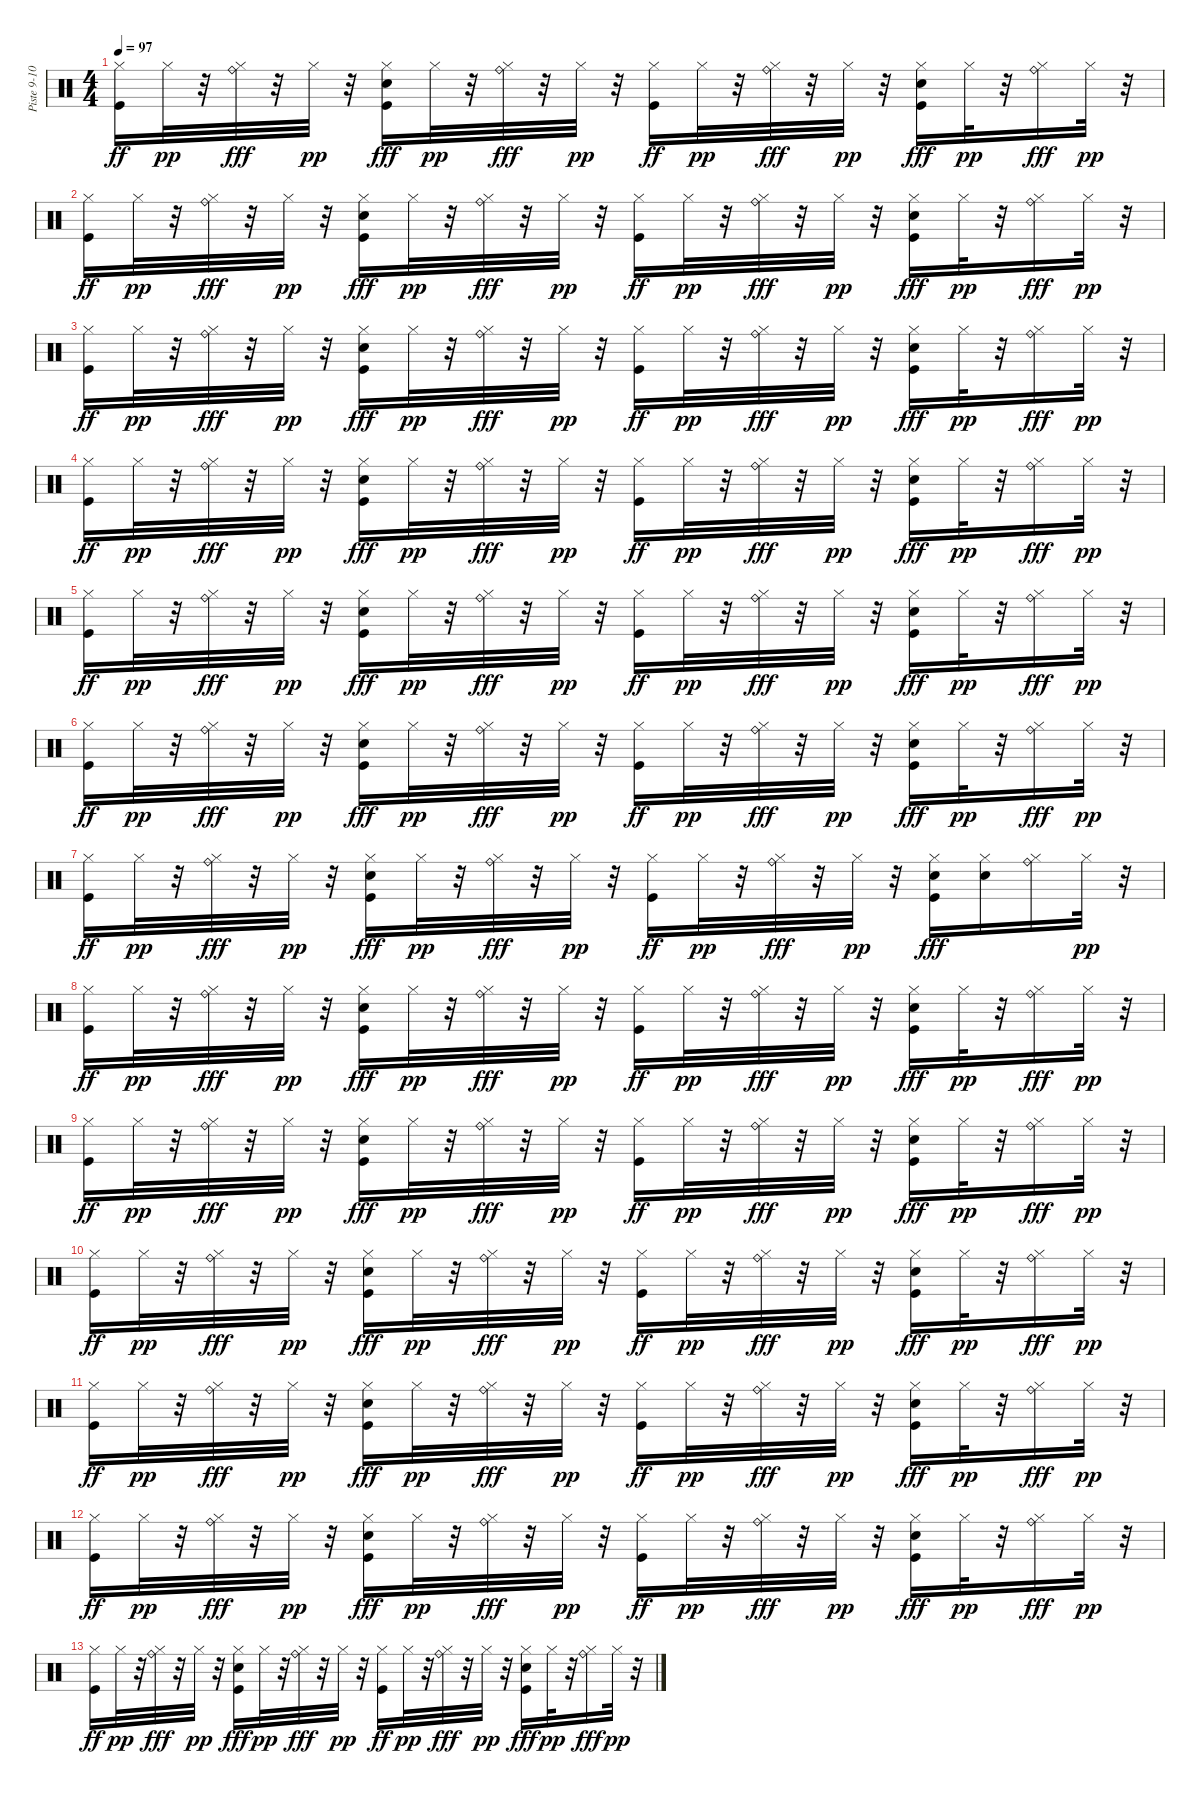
\track ("Piste 9-10-11-12-13-14" "Piste 9-10") {instrument percussion}
\staff {score}
\articulation defaults
\ts (4 4)
\tempo 97
\clef neutral
\ks c
("Hi-Hat (closed)" "Kick (hit)").16{dy ff} "Hi-Hat (closed)".32{dy pp} r.32 ("Hi-Hat (closed)" "Ride (bell)").32{dy fff} r.32 "Hi-Hat (closed)".32{dy pp} r.32 ("Hi-Hat (closed)" "Snare (hit) 2" "Kick (hit)").16{dy fff} "Hi-Hat (closed)".32{dy pp} r.32 ("Hi-Hat (closed)" "Ride (bell)").32{dy fff} r.32 "Hi-Hat (closed)".32{dy pp} r.32 ("Hi-Hat (closed)" "Kick (hit)").16{dy ff} "Hi-Hat (closed)".32{dy pp} r.32 ("Hi-Hat (closed)" "Ride (bell)").32{dy fff} r.32 "Hi-Hat (closed)".32{dy pp} r.32 ("Hi-Hat (closed)" "Snare (hit) 2" "Kick (hit)").16{dy fff} "Hi-Hat (closed)".32{dy pp} r.32 ("Hi-Hat (closed)" "Ride (bell)").16{dy fff} "Hi-Hat (closed)".32{dy pp} r.32 |
("Hi-Hat (closed)" "Kick (hit)").16{dy ff} "Hi-Hat (closed)".32{dy pp} r.32 ("Hi-Hat (closed)" "Ride (bell)").32{dy fff} r.32 "Hi-Hat (closed)".32{dy pp} r.32 ("Hi-Hat (closed)" "Snare (hit) 2" "Kick (hit)").16{dy fff} "Hi-Hat (closed)".32{dy pp} r.32 ("Hi-Hat (closed)" "Ride (bell)").32{dy fff} r.32 "Hi-Hat (closed)".32{dy pp} r.32 ("Hi-Hat (closed)" "Kick (hit)").16{dy ff} "Hi-Hat (closed)".32{dy pp} r.32 ("Hi-Hat (closed)" "Ride (bell)").32{dy fff} r.32 "Hi-Hat (closed)".32{dy pp} r.32 ("Hi-Hat (closed)" "Snare (hit) 2" "Kick (hit)").16{dy fff} "Hi-Hat (closed)".32{dy pp} r.32 ("Hi-Hat (closed)" "Ride (bell)").16{dy fff} "Hi-Hat (closed)".32{dy pp} r.32 |
("Hi-Hat (closed)" "Kick (hit)").16{dy ff} "Hi-Hat (closed)".32{dy pp} r.32 ("Hi-Hat (closed)" "Ride (bell)").32{dy fff} r.32 "Hi-Hat (closed)".32{dy pp} r.32 ("Hi-Hat (closed)" "Snare (hit) 2" "Kick (hit)").16{dy fff} "Hi-Hat (closed)".32{dy pp} r.32 ("Hi-Hat (closed)" "Ride (bell)").32{dy fff} r.32 "Hi-Hat (closed)".32{dy pp} r.32 ("Hi-Hat (closed)" "Kick (hit)").16{dy ff} "Hi-Hat (closed)".32{dy pp} r.32 ("Hi-Hat (closed)" "Ride (bell)").32{dy fff} r.32 "Hi-Hat (closed)".32{dy pp} r.32 ("Hi-Hat (closed)" "Snare (hit) 2" "Kick (hit)").16{dy fff} "Hi-Hat (closed)".32{dy pp} r.32 ("Hi-Hat (closed)" "Ride (bell)").16{dy fff} "Hi-Hat (closed)".32{dy pp} r.32 |
("Hi-Hat (closed)" "Kick (hit)").16{dy ff} "Hi-Hat (closed)".32{dy pp} r.32 ("Hi-Hat (closed)" "Ride (bell)").32{dy fff} r.32 "Hi-Hat (closed)".32{dy pp} r.32 ("Hi-Hat (closed)" "Snare (hit) 2" "Kick (hit)").16{dy fff} "Hi-Hat (closed)".32{dy pp} r.32 ("Hi-Hat (closed)" "Ride (bell)").32{dy fff} r.32 "Hi-Hat (closed)".32{dy pp} r.32 ("Hi-Hat (closed)" "Kick (hit)").16{dy ff} "Hi-Hat (closed)".32{dy pp} r.32 ("Hi-Hat (closed)" "Ride (bell)").32{dy fff} r.32 "Hi-Hat (closed)".32{dy pp} r.32 ("Hi-Hat (closed)" "Snare (hit) 2" "Kick (hit)").16{dy fff} "Hi-Hat (closed)".32{dy pp} r.32 ("Hi-Hat (closed)" "Ride (bell)").16{dy fff} "Hi-Hat (closed)".32{dy pp} r.32 |
("Hi-Hat (closed)" "Kick (hit)").16{dy ff} "Hi-Hat (closed)".32{dy pp} r.32 ("Hi-Hat (closed)" "Ride (bell)").32{dy fff} r.32 "Hi-Hat (closed)".32{dy pp} r.32 ("Hi-Hat (closed)" "Snare (hit) 2" "Kick (hit)").16{dy fff} "Hi-Hat (closed)".32{dy pp} r.32 ("Hi-Hat (closed)" "Ride (bell)").32{dy fff} r.32 "Hi-Hat (closed)".32{dy pp} r.32 ("Hi-Hat (closed)" "Kick (hit)").16{dy ff} "Hi-Hat (closed)".32{dy pp} r.32 ("Hi-Hat (closed)" "Ride (bell)").32{dy fff} r.32 "Hi-Hat (closed)".32{dy pp} r.32 ("Hi-Hat (closed)" "Snare (hit) 2" "Kick (hit)").16{dy fff} "Hi-Hat (closed)".32{dy pp} r.32 ("Hi-Hat (closed)" "Ride (bell)").16{dy fff} "Hi-Hat (closed)".32{dy pp} r.32 |
("Hi-Hat (closed)" "Kick (hit)").16{dy ff} "Hi-Hat (closed)".32{dy pp} r.32 ("Hi-Hat (closed)" "Ride (bell)").32{dy fff} r.32 "Hi-Hat (closed)".32{dy pp} r.32 ("Hi-Hat (closed)" "Snare (hit) 2" "Kick (hit)").16{dy fff} "Hi-Hat (closed)".32{dy pp} r.32 ("Hi-Hat (closed)" "Ride (bell)").32{dy fff} r.32 "Hi-Hat (closed)".32{dy pp} r.32 ("Hi-Hat (closed)" "Kick (hit)").16{dy ff} "Hi-Hat (closed)".32{dy pp} r.32 ("Hi-Hat (closed)" "Ride (bell)").32{dy fff} r.32 "Hi-Hat (closed)".32{dy pp} r.32 ("Hi-Hat (closed)" "Snare (hit) 2" "Kick (hit)").16{dy fff} "Hi-Hat (closed)".32{dy pp} r.32 ("Hi-Hat (closed)" "Ride (bell)").16{dy fff} "Hi-Hat (closed)".32{dy pp} r.32 |
("Hi-Hat (closed)" "Kick (hit)").16{dy ff} "Hi-Hat (closed)".32{dy pp} r.32 ("Hi-Hat (closed)" "Ride (bell)").32{dy fff} r.32 "Hi-Hat (closed)".32{dy pp} r.32 ("Hi-Hat (closed)" "Snare (hit) 2" "Kick (hit)").16{dy fff} "Hi-Hat (closed)".32{dy pp} r.32 ("Hi-Hat (closed)" "Ride (bell)").32{dy fff} r.32 "Hi-Hat (closed)".32{dy pp} r.32 ("Hi-Hat (closed)" "Kick (hit)").16{dy ff} "Hi-Hat (closed)".32{dy pp} r.32 ("Hi-Hat (closed)" "Ride (bell)").32{dy fff} r.32 "Hi-Hat (closed)".32{dy pp} r.32 ("Hi-Hat (closed)" "Snare (hit) 2" "Kick (hit)").16{dy fff} ("Hi-Hat (closed)" "Snare (hit) 2").16 ("Hi-Hat (closed)" "Ride (bell)").16 "Hi-Hat (closed)".32{dy pp} r.32 |
("Hi-Hat (closed)" "Kick (hit)").16{dy ff} "Hi-Hat (closed)".32{dy pp} r.32 ("Hi-Hat (closed)" "Ride (bell)").32{dy fff} r.32 "Hi-Hat (closed)".32{dy pp} r.32 ("Hi-Hat (closed)" "Snare (hit) 2" "Kick (hit)").16{dy fff} "Hi-Hat (closed)".32{dy pp} r.32 ("Hi-Hat (closed)" "Ride (bell)").32{dy fff} r.32 "Hi-Hat (closed)".32{dy pp} r.32 ("Hi-Hat (closed)" "Kick (hit)").16{dy ff} "Hi-Hat (closed)".32{dy pp} r.32 ("Hi-Hat (closed)" "Ride (bell)").32{dy fff} r.32 "Hi-Hat (closed)".32{dy pp} r.32 ("Hi-Hat (closed)" "Snare (hit) 2" "Kick (hit)").16{dy fff} "Hi-Hat (closed)".32{dy pp} r.32 ("Hi-Hat (closed)" "Ride (bell)").16{dy fff} "Hi-Hat (closed)".32{dy pp} r.32 |
("Hi-Hat (closed)" "Kick (hit)").16{dy ff} "Hi-Hat (closed)".32{dy pp} r.32 ("Hi-Hat (closed)" "Ride (bell)").32{dy fff} r.32 "Hi-Hat (closed)".32{dy pp} r.32 ("Hi-Hat (closed)" "Snare (hit) 2" "Kick (hit)").16{dy fff} "Hi-Hat (closed)".32{dy pp} r.32 ("Hi-Hat (closed)" "Ride (bell)").32{dy fff} r.32 "Hi-Hat (closed)".32{dy pp} r.32 ("Hi-Hat (closed)" "Kick (hit)").16{dy ff} "Hi-Hat (closed)".32{dy pp} r.32 ("Hi-Hat (closed)" "Ride (bell)").32{dy fff} r.32 "Hi-Hat (closed)".32{dy pp} r.32 ("Hi-Hat (closed)" "Snare (hit) 2" "Kick (hit)").16{dy fff} "Hi-Hat (closed)".32{dy pp} r.32 ("Hi-Hat (closed)" "Ride (bell)").16{dy fff} "Hi-Hat (closed)".32{dy pp} r.32 |
("Hi-Hat (closed)" "Kick (hit)").16{dy ff} "Hi-Hat (closed)".32{dy pp} r.32 ("Hi-Hat (closed)" "Ride (bell)").32{dy fff} r.32 "Hi-Hat (closed)".32{dy pp} r.32 ("Hi-Hat (closed)" "Snare (hit) 2" "Kick (hit)").16{dy fff} "Hi-Hat (closed)".32{dy pp} r.32 ("Hi-Hat (closed)" "Ride (bell)").32{dy fff} r.32 "Hi-Hat (closed)".32{dy pp} r.32 ("Hi-Hat (closed)" "Kick (hit)").16{dy ff} "Hi-Hat (closed)".32{dy pp} r.32 ("Hi-Hat (closed)" "Ride (bell)").32{dy fff} r.32 "Hi-Hat (closed)".32{dy pp} r.32 ("Hi-Hat (closed)" "Snare (hit) 2" "Kick (hit)").16{dy fff} "Hi-Hat (closed)".32{dy pp} r.32 ("Hi-Hat (closed)" "Ride (bell)").16{dy fff} "Hi-Hat (closed)".32{dy pp} r.32 |
("Hi-Hat (closed)" "Kick (hit)").16{dy ff} "Hi-Hat (closed)".32{dy pp} r.32 ("Hi-Hat (closed)" "Ride (bell)").32{dy fff} r.32 "Hi-Hat (closed)".32{dy pp} r.32 ("Hi-Hat (closed)" "Snare (hit) 2" "Kick (hit)").16{dy fff} "Hi-Hat (closed)".32{dy pp} r.32 ("Hi-Hat (closed)" "Ride (bell)").32{dy fff} r.32 "Hi-Hat (closed)".32{dy pp} r.32 ("Hi-Hat (closed)" "Kick (hit)").16{dy ff} "Hi-Hat (closed)".32{dy pp} r.32 ("Hi-Hat (closed)" "Ride (bell)").32{dy fff} r.32 "Hi-Hat (closed)".32{dy pp} r.32 ("Hi-Hat (closed)" "Snare (hit) 2" "Kick (hit)").16{dy fff} "Hi-Hat (closed)".32{dy pp} r.32 ("Hi-Hat (closed)" "Ride (bell)").16{dy fff} "Hi-Hat (closed)".32{dy pp} r.32 |
("Hi-Hat (closed)" "Kick (hit)").16{dy ff} "Hi-Hat (closed)".32{dy pp} r.32 ("Hi-Hat (closed)" "Ride (bell)").32{dy fff} r.32 "Hi-Hat (closed)".32{dy pp} r.32 ("Hi-Hat (closed)" "Snare (hit) 2" "Kick (hit)").16{dy fff} "Hi-Hat (closed)".32{dy pp} r.32 ("Hi-Hat (closed)" "Ride (bell)").32{dy fff} r.32 "Hi-Hat (closed)".32{dy pp} r.32 ("Hi-Hat (closed)" "Kick (hit)").16{dy ff} "Hi-Hat (closed)".32{dy pp} r.32 ("Hi-Hat (closed)" "Ride (bell)").32{dy fff} r.32 "Hi-Hat (closed)".32{dy pp} r.32 ("Hi-Hat (closed)" "Snare (hit) 2" "Kick (hit)").16{dy fff} "Hi-Hat (closed)".32{dy pp} r.32 ("Hi-Hat (closed)" "Ride (bell)").16{dy fff} "Hi-Hat (closed)".32{dy pp} r.32 |
("Hi-Hat (closed)" "Kick (hit)").16{dy ff} "Hi-Hat (closed)".32{dy pp} r.32 ("Hi-Hat (closed)" "Ride (bell)").32{dy fff} r.32 "Hi-Hat (closed)".32{dy pp} r.32 ("Hi-Hat (closed)" "Snare (hit) 2" "Kick (hit)").16{dy fff} "Hi-Hat (closed)".32{dy pp} r.32 ("Hi-Hat (closed)" "Ride (bell)").32{dy fff} r.32 "Hi-Hat (closed)".32{dy pp} r.32 ("Hi-Hat (closed)" "Kick (hit)").16{dy ff} "Hi-Hat (closed)".32{dy pp} r.32 ("Hi-Hat (closed)" "Ride (bell)").32{dy fff} r.32 "Hi-Hat (closed)".32{dy pp} r.32 ("Hi-Hat (closed)" "Snare (hit) 2" "Kick (hit)").16{dy fff} "Hi-Hat (closed)".32{dy pp} r.32 ("Hi-Hat (closed)" "Ride (bell)").16{dy fff} "Hi-Hat (closed)".32{dy pp} r.32
